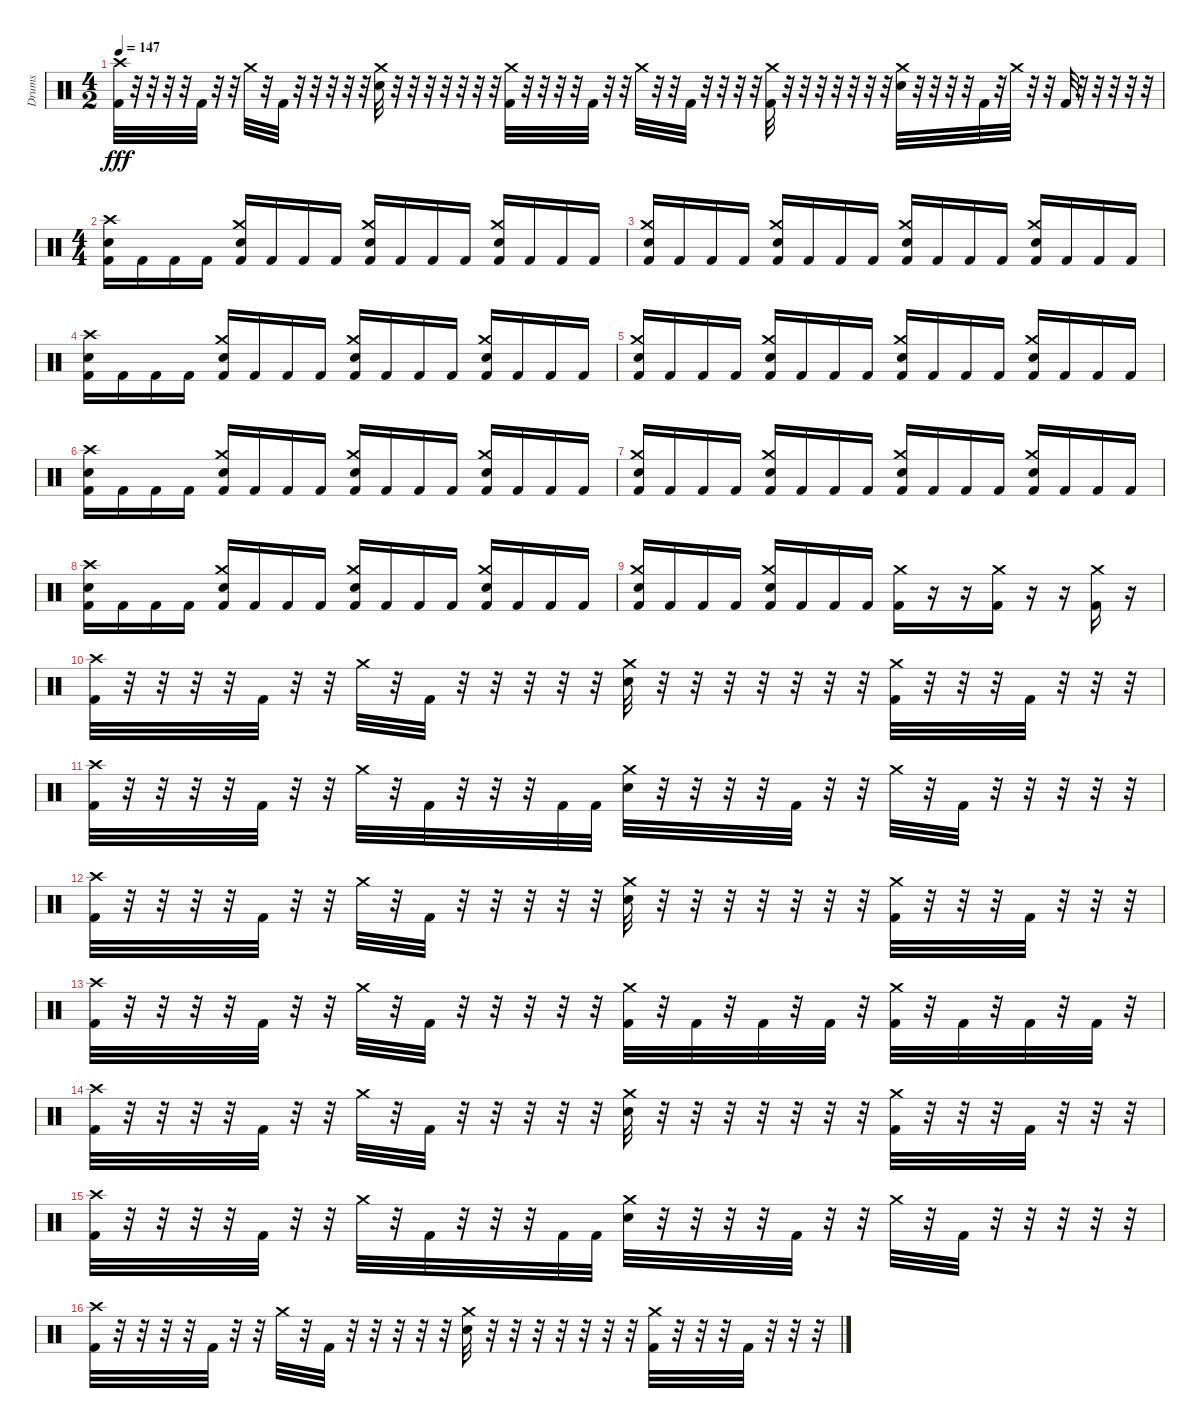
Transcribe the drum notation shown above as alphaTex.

\track ("Drums" "Drums") {instrument percussion}
\staff {score}
\articulation defaults
\ts (4 2)
\tempo 147
\clef neutral
\ks c
("Crash high (hit)" "Kick (hit) 2").32{dy fff} r.32 r.32 r.32 r.32 "Kick (hit) 2".32 r.32 r.32 "Crash medium (hit)".32 r.32 "Kick (hit) 2".32 r.32 r.32 r.32 r.32 r.32 ("Crash medium (hit)" "Electric Snare (hit)").32 r.32 r.32 r.32 r.32 r.32 r.32 r.32 ("Crash medium (hit)" "Kick (hit) 2").32 r.32 r.32 r.32 r.32 "Kick (hit) 2".32 r.32 r.32 "Crash medium (hit)".32 r.32 r.32 "Kick (hit) 2".32 r.32 r.32 r.32 r.32 ("Crash medium (hit)" "Kick (hit) 2").32 r.32 r.32 r.32 r.32 r.32 r.32 r.32 ("Crash medium (hit)" "Electric Snare (hit)").32 r.32 r.32 r.32 r.32 "Kick (hit) 2".32 r.32 "Crash medium (hit)".32 r.32 r.32 "Kick (hit) 2".32 r.32 r.32 r.32 r.32 r.32 |
\ts (4 4)
("Crash high (hit)" "Electric Snare (hit)" "Kick (hit) 2").16 "Kick (hit) 2".16 "Kick (hit) 2".16 "Kick (hit) 2".16 ("Crash medium (hit)" "Electric Snare (hit)" "Kick (hit) 2").16 "Kick (hit) 2".16 "Kick (hit) 2".16 "Kick (hit) 2".16 ("Crash medium (hit)" "Electric Snare (hit)" "Kick (hit) 2").16 "Kick (hit) 2".16 "Kick (hit) 2".16 "Kick (hit) 2".16 ("Crash medium (hit)" "Electric Snare (hit)" "Kick (hit) 2").16 "Kick (hit) 2".16 "Kick (hit) 2".16 "Kick (hit) 2".16 |
("Crash medium (hit)" "Electric Snare (hit)" "Kick (hit) 2").16 "Kick (hit) 2".16 "Kick (hit) 2".16 "Kick (hit) 2".16 ("Crash medium (hit)" "Electric Snare (hit)" "Kick (hit) 2").16 "Kick (hit) 2".16 "Kick (hit) 2".16 "Kick (hit) 2".16 ("Crash medium (hit)" "Electric Snare (hit)" "Kick (hit) 2").16 "Kick (hit) 2".16 "Kick (hit) 2".16 "Kick (hit) 2".16 ("Crash medium (hit)" "Electric Snare (hit)" "Kick (hit) 2").16 "Kick (hit) 2".16 "Kick (hit) 2".16 "Kick (hit) 2".16 |
("Crash high (hit)" "Electric Snare (hit)" "Kick (hit) 2").16 "Kick (hit) 2".16 "Kick (hit) 2".16 "Kick (hit) 2".16 ("Crash medium (hit)" "Electric Snare (hit)" "Kick (hit) 2").16 "Kick (hit) 2".16 "Kick (hit) 2".16 "Kick (hit) 2".16 ("Crash medium (hit)" "Electric Snare (hit)" "Kick (hit) 2").16 "Kick (hit) 2".16 "Kick (hit) 2".16 "Kick (hit) 2".16 ("Crash medium (hit)" "Electric Snare (hit)" "Kick (hit) 2").16 "Kick (hit) 2".16 "Kick (hit) 2".16 "Kick (hit) 2".16 |
("Crash medium (hit)" "Electric Snare (hit)" "Kick (hit) 2").16 "Kick (hit) 2".16 "Kick (hit) 2".16 "Kick (hit) 2".16 ("Crash medium (hit)" "Electric Snare (hit)" "Kick (hit) 2").16 "Kick (hit) 2".16 "Kick (hit) 2".16 "Kick (hit) 2".16 ("Crash medium (hit)" "Electric Snare (hit)" "Kick (hit) 2").16 "Kick (hit) 2".16 "Kick (hit) 2".16 "Kick (hit) 2".16 ("Crash medium (hit)" "Electric Snare (hit)" "Kick (hit) 2").16 "Kick (hit) 2".16 "Kick (hit) 2".16 "Kick (hit) 2".16 |
("Crash high (hit)" "Electric Snare (hit)" "Kick (hit) 2").16 "Kick (hit) 2".16 "Kick (hit) 2".16 "Kick (hit) 2".16 ("Crash medium (hit)" "Electric Snare (hit)" "Kick (hit) 2").16 "Kick (hit) 2".16 "Kick (hit) 2".16 "Kick (hit) 2".16 ("Crash medium (hit)" "Electric Snare (hit)" "Kick (hit) 2").16 "Kick (hit) 2".16 "Kick (hit) 2".16 "Kick (hit) 2".16 ("Crash medium (hit)" "Electric Snare (hit)" "Kick (hit) 2").16 "Kick (hit) 2".16 "Kick (hit) 2".16 "Kick (hit) 2".16 |
("Crash medium (hit)" "Electric Snare (hit)" "Kick (hit) 2").16 "Kick (hit) 2".16 "Kick (hit) 2".16 "Kick (hit) 2".16 ("Crash medium (hit)" "Electric Snare (hit)" "Kick (hit) 2").16 "Kick (hit) 2".16 "Kick (hit) 2".16 "Kick (hit) 2".16 ("Crash medium (hit)" "Electric Snare (hit)" "Kick (hit) 2").16 "Kick (hit) 2".16 "Kick (hit) 2".16 "Kick (hit) 2".16 ("Crash medium (hit)" "Electric Snare (hit)" "Kick (hit) 2").16 "Kick (hit) 2".16 "Kick (hit) 2".16 "Kick (hit) 2".16 |
("Crash high (hit)" "Electric Snare (hit)" "Kick (hit) 2").16 "Kick (hit) 2".16 "Kick (hit) 2".16 "Kick (hit) 2".16 ("Crash medium (hit)" "Electric Snare (hit)" "Kick (hit) 2").16 "Kick (hit) 2".16 "Kick (hit) 2".16 "Kick (hit) 2".16 ("Crash medium (hit)" "Electric Snare (hit)" "Kick (hit) 2").16 "Kick (hit) 2".16 "Kick (hit) 2".16 "Kick (hit) 2".16 ("Crash medium (hit)" "Electric Snare (hit)" "Kick (hit) 2").16 "Kick (hit) 2".16 "Kick (hit) 2".16 "Kick (hit) 2".16 |
("Crash medium (hit)" "Electric Snare (hit)" "Kick (hit) 2").16 "Kick (hit) 2".16 "Kick (hit) 2".16 "Kick (hit) 2".16 ("Crash medium (hit)" "Electric Snare (hit)" "Kick (hit) 2").16 "Kick (hit) 2".16 "Kick (hit) 2".16 "Kick (hit) 2".16 ("Crash medium (hit)" "Kick (hit) 2").16 r.16 r.16 ("Crash medium (hit)" "Kick (hit) 2").16 r.16 r.16 ("Crash medium (hit)" "Kick (hit) 2").16 r.16 |
("Crash high (hit)" "Kick (hit) 2").32 r.32 r.32 r.32 r.32 "Kick (hit) 2".32 r.32 r.32 "Crash medium (hit)".32 r.32 "Kick (hit) 2".32 r.32 r.32 r.32 r.32 r.32 ("Crash medium (hit)" "Electric Snare (hit)").32 r.32 r.32 r.32 r.32 r.32 r.32 r.32 ("Crash medium (hit)" "Kick (hit) 2").32 r.32 r.32 r.32 "Kick (hit) 2".32 r.32 r.32 r.32 |
("Crash high (hit)" "Kick (hit) 2").32 r.32 r.32 r.32 r.32 "Kick (hit) 2".32 r.32 r.32 "Crash medium (hit)".32 r.32 "Kick (hit) 2".32 r.32 r.32 r.32 "Kick (hit) 2".32 "Kick (hit) 2".32 ("Crash medium (hit)" "Electric Snare (hit)").32 r.32 r.32 r.32 r.32 "Kick (hit) 2".32 r.32 r.32 "Crash medium (hit)".32 r.32 "Kick (hit) 2".32 r.32 r.32 r.32 r.32 r.32 |
("Crash high (hit)" "Kick (hit) 2").32 r.32 r.32 r.32 r.32 "Kick (hit) 2".32 r.32 r.32 "Crash medium (hit)".32 r.32 "Kick (hit) 2".32 r.32 r.32 r.32 r.32 r.32 ("Crash medium (hit)" "Electric Snare (hit)").32 r.32 r.32 r.32 r.32 r.32 r.32 r.32 ("Crash medium (hit)" "Kick (hit) 2").32 r.32 r.32 r.32 "Kick (hit) 2".32 r.32 r.32 r.32 |
("Crash high (hit)" "Kick (hit) 2").32 r.32 r.32 r.32 r.32 "Kick (hit) 2".32 r.32 r.32 "Crash medium (hit)".32 r.32 "Kick (hit) 2".32 r.32 r.32 r.32 r.32 r.32 ("Crash medium (hit)" "Kick (hit) 2").32 r.32 "Kick (hit) 2".32 r.32 "Kick (hit) 2".32 r.32 "Kick (hit) 2".32 r.32 ("Crash medium (hit)" "Kick (hit) 2").32 r.32 "Kick (hit) 2".32 r.32 "Kick (hit) 2".32 r.32 "Kick (hit) 2".32 r.32 |
("Crash high (hit)" "Kick (hit) 2").32 r.32 r.32 r.32 r.32 "Kick (hit) 2".32 r.32 r.32 "Crash medium (hit)".32 r.32 "Kick (hit) 2".32 r.32 r.32 r.32 r.32 r.32 ("Crash medium (hit)" "Electric Snare (hit)").32 r.32 r.32 r.32 r.32 r.32 r.32 r.32 ("Crash medium (hit)" "Kick (hit) 2").32 r.32 r.32 r.32 "Kick (hit) 2".32 r.32 r.32 r.32 |
("Crash high (hit)" "Kick (hit) 2").32 r.32 r.32 r.32 r.32 "Kick (hit) 2".32 r.32 r.32 "Crash medium (hit)".32 r.32 "Kick (hit) 2".32 r.32 r.32 r.32 "Kick (hit) 2".32 "Kick (hit) 2".32 ("Crash medium (hit)" "Electric Snare (hit)").32 r.32 r.32 r.32 r.32 "Kick (hit) 2".32 r.32 r.32 "Crash medium (hit)".32 r.32 "Kick (hit) 2".32 r.32 r.32 r.32 r.32 r.32 |
("Crash high (hit)" "Kick (hit) 2").32 r.32 r.32 r.32 r.32 "Kick (hit) 2".32 r.32 r.32 "Crash medium (hit)".32 r.32 "Kick (hit) 2".32 r.32 r.32 r.32 r.32 r.32 ("Crash medium (hit)" "Electric Snare (hit)").32 r.32 r.32 r.32 r.32 r.32 r.32 r.32 ("Crash medium (hit)" "Kick (hit) 2").32 r.32 r.32 r.32 "Kick (hit) 2".32 r.32 r.32 r.32
